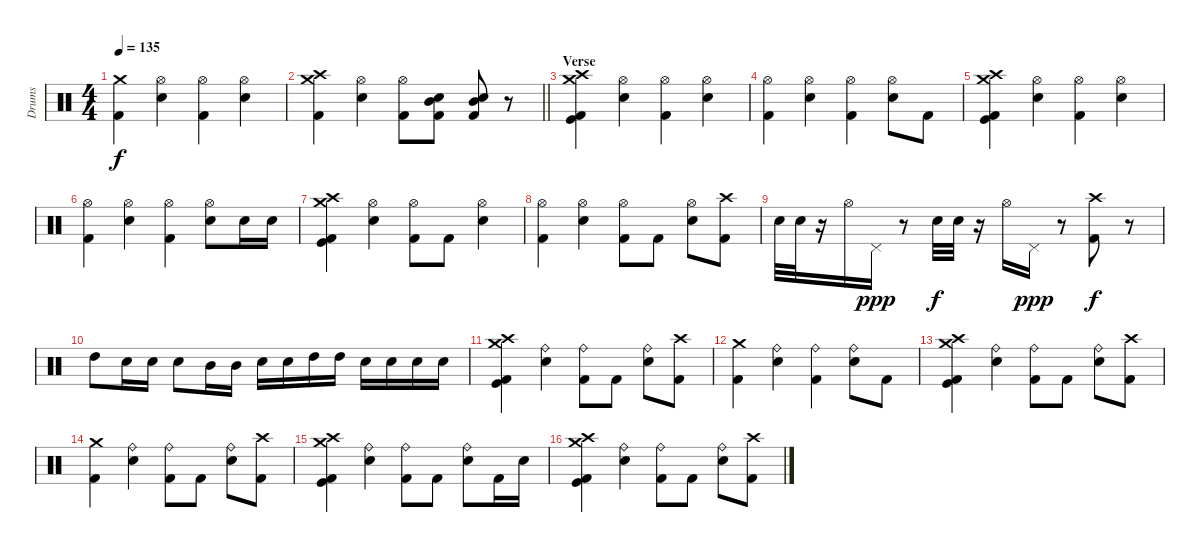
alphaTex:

\track ("Drums" "Drums") {instrument percussion}
\staff {score}
\articulation defaults
\ts (4 4)
\tempo 135
\clef neutral
\ks c
("Crash medium (hit)" "Kick (hit) 2").4{dy f} ("Hi-Hat (open)" "Snare (hit) 2").4 ("Hi-Hat (open)" "Kick (hit) 2").4 ("Hi-Hat (open)" "Snare (hit) 2").4 |
\barLineRight lightlight
("Crash high (hit)" "Crash medium (hit)" "Kick (hit) 2").4 ("Hi-Hat (open)" "Snare (hit) 2").4 ("Hi-Hat (open)" "Kick (hit) 2").8 ("Kick (hit) 2" "Mid Tom (hit)" "Snare (hit) 2").8 ("Kick (hit) 2" "Mid Tom (hit)" "Snare (hit) 2").8 r.8 |
\section ("" "Verse")
("Crash high (hit)" "Crash medium (hit)" "Kick (hit) 2" "Kick (hit)").4 ("Hi-Hat (open)" "Snare (hit) 2").4 ("Hi-Hat (open)" "Kick (hit) 2").4 ("Hi-Hat (open)" "Snare (hit) 2").4 |
("Hi-Hat (open)" "Kick (hit) 2").4 ("Hi-Hat (open)" "Snare (hit) 2").4 ("Hi-Hat (open)" "Kick (hit) 2").4 ("Hi-Hat (open)" "Snare (hit) 2").8 "Kick (hit) 2".8 |
("Crash medium (hit)" "Crash high (hit)" "Kick (hit)" "Kick (hit) 2").4 ("Hi-Hat (open)" "Snare (hit) 2").4 ("Hi-Hat (open)" "Kick (hit) 2").4 ("Hi-Hat (open)" "Snare (hit) 2").4 |
("Hi-Hat (open)" "Kick (hit) 2").4 ("Hi-Hat (open)" "Snare (hit) 2").4 ("Hi-Hat (open)" "Kick (hit) 2").4 ("Hi-Hat (open)" "Snare (hit) 2").8 "Snare (hit) 2".16 "Snare (hit) 2".16 |
("Crash medium (hit)" "Crash high (hit)" "Kick (hit)" "Kick (hit) 2").4 ("Hi-Hat (open)" "Snare (hit) 2").4 ("Hi-Hat (open)" "Kick (hit) 2").8 "Kick (hit) 2".8 ("Hi-Hat (open)" "Snare (hit) 2").4 |
("Hi-Hat (open)" "Kick (hit) 2").4 ("Hi-Hat (open)" "Snare (hit) 2").4 ("Hi-Hat (open)" "Kick (hit) 2").8 "Kick (hit) 2".8 ("Hi-Hat (open)" "Snare (hit) 2").8 ("Crash high (hit)" "Kick (hit) 2").8 |
"Snare (hit) 2".32 "Snare (hit) 2".32 r.16 "Hi-Hat (open)".16 "Pedal Hi-Hat (hit)".16{dy ppp} r.8 "Snare (hit) 2".32{dy f} "Snare (hit) 2".32 r.16 "Hi-Hat (open)".16 "Pedal Hi-Hat (hit)".16{dy ppp} r.8 ("Crash high (hit)" "Kick (hit) 2").8{dy f} r.8 |
"High Tom (hit)".8 "Snare (hit) 2".16 "Snare (hit) 2".16 "Snare (hit) 2".8 "Mid Tom (hit)".16 "Mid Tom (hit)".16 "Snare (hit) 2".16 "Snare (hit) 2".16 "High Tom (hit)".16 "High Tom (hit)".16 "Snare (hit) 2".16 "Snare (hit) 2".16 "Snare (hit) 2".16 "Snare (hit) 2".16 |
("Crash high (hit)" "Crash medium (hit)" "Kick (hit) 2" "Kick (hit)").4 ("Ride (bell)" "Snare (hit) 2").4 ("Ride (bell)" "Kick (hit) 2").8 "Kick (hit) 2".8 ("Ride (bell)" "Snare (hit) 2").8 ("Crash high (hit)" "Kick (hit) 2").8 |
("Crash medium (hit)" "Kick (hit) 2").4 ("Ride (bell)" "Snare (hit) 2").4 ("Ride (bell)" "Kick (hit) 2").4 ("Ride (bell)" "Snare (hit) 2").8 "Kick (hit) 2".8 |
("Crash high (hit)" "Crash medium (hit)" "Kick (hit) 2" "Kick (hit)").4 ("Ride (bell)" "Snare (hit) 2").4 ("Ride (bell)" "Kick (hit) 2").8 "Kick (hit) 2".8 ("Ride (bell)" "Snare (hit) 2").8 ("Crash high (hit)" "Kick (hit) 2").8 |
("Crash medium (hit)" "Kick (hit) 2").4 ("Ride (bell)" "Snare (hit) 2").4 ("Ride (bell)" "Kick (hit) 2").8 "Kick (hit) 2".8 ("Ride (bell)" "Snare (hit) 2").8 ("Crash high (hit)" "Kick (hit) 2").8 |
("Crash medium (hit)" "Crash high (hit)" "Kick (hit)" "Kick (hit) 2").4 ("Ride (bell)" "Snare (hit) 2").4 ("Ride (bell)" "Kick (hit) 2").8 "Kick (hit) 2".8 ("Ride (bell)" "Snare (hit) 2").8 "Kick (hit) 2".16 "Snare (hit) 2".16 |
("Crash medium (hit)" "Crash high (hit)" "Kick (hit)" "Kick (hit) 2").4 ("Ride (bell)" "Snare (hit) 2").4 ("Ride (bell)" "Kick (hit) 2").8 "Kick (hit) 2".8 ("Ride (bell)" "Snare (hit) 2").8 ("Crash high (hit)" "Kick (hit) 2").8
